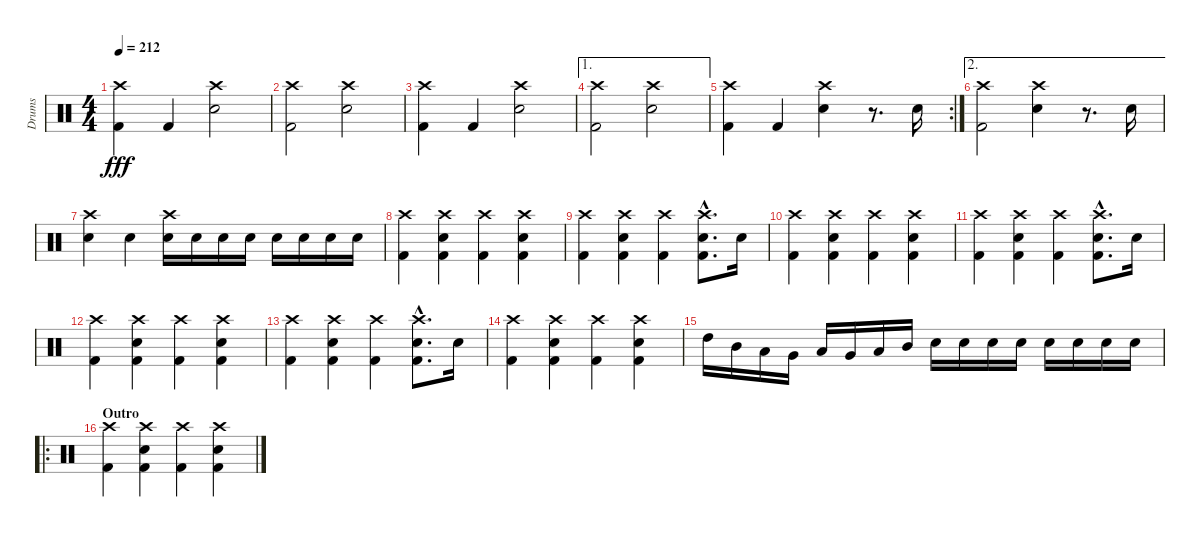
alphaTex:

\track ("Drums" "Drums") {instrument percussion}
\staff {score}
\articulation defaults
\ts (4 4)
\tempo 212
\clef neutral
\ks c
("Crash high (hit)" "Kick (hit) 2").4{dy fff} "Kick (hit) 2".4 ("Crash high (hit)" "Electric Snare (hit)").2 |
("Crash high (hit)" "Kick (hit) 2").2 ("Crash high (hit)" "Electric Snare (hit)").2 |
("Crash high (hit)" "Kick (hit) 2").4 "Kick (hit) 2".4 ("Crash high (hit)" "Electric Snare (hit)").2 |
\ae 1
("Crash high (hit)" "Kick (hit) 2").2 ("Crash high (hit)" "Electric Snare (hit)").2 |
\rc 2
("Crash high (hit)" "Kick (hit) 2").4 "Kick (hit) 2".4 ("Crash high (hit)" "Electric Snare (hit)").4 r.8{d} "Electric Snare (hit)".16 |
\ae 2
("Crash high (hit)" "Kick (hit) 2").2 ("Crash high (hit)" "Electric Snare (hit)").4 r.8{d} "Electric Snare (hit)".16 |
("Crash high (hit)" "Electric Snare (hit)").4 "Electric Snare (hit)".4 ("Crash high (hit)" "Electric Snare (hit)").16 "Electric Snare (hit)".16 "Electric Snare (hit)".16 "Electric Snare (hit)".16 "Electric Snare (hit)".16 "Electric Snare (hit)".16 "Electric Snare (hit)".16 "Electric Snare (hit)".16 |
("Crash high (hit)" "Kick (hit) 2").4 ("Crash high (hit)" "Electric Snare (hit)" "Kick (hit) 2").4 ("Crash high (hit)" "Kick (hit) 2").4 ("Crash high (hit)" "Electric Snare (hit)" "Kick (hit) 2").4 |
("Crash high (hit)" "Kick (hit) 2").4 ("Crash high (hit)" "Electric Snare (hit)" "Kick (hit) 2").4 ("Crash high (hit)" "Kick (hit) 2").4 ("Crash high (hit)"{hac} "Electric Snare (hit)"{hac} "Kick (hit) 2"{hac}).8{d} "Electric Snare (hit)".16 |
("Crash high (hit)" "Kick (hit) 2").4 ("Crash high (hit)" "Electric Snare (hit)" "Kick (hit) 2").4 ("Crash high (hit)" "Kick (hit) 2").4 ("Crash high (hit)" "Electric Snare (hit)" "Kick (hit) 2").4 |
("Crash high (hit)" "Kick (hit) 2").4 ("Crash high (hit)" "Electric Snare (hit)" "Kick (hit) 2").4 ("Crash high (hit)" "Kick (hit) 2").4 ("Crash high (hit)"{hac} "Electric Snare (hit)"{hac} "Kick (hit) 2"{hac}).8{d} "Electric Snare (hit)".16 |
("Crash high (hit)" "Kick (hit) 2").4 ("Crash high (hit)" "Electric Snare (hit)" "Kick (hit) 2").4 ("Crash high (hit)" "Kick (hit) 2").4 ("Crash high (hit)" "Electric Snare (hit)" "Kick (hit) 2").4 |
("Crash high (hit)" "Kick (hit) 2").4 ("Crash high (hit)" "Electric Snare (hit)" "Kick (hit) 2").4 ("Crash high (hit)" "Kick (hit) 2").4 ("Crash high (hit)"{hac} "Electric Snare (hit)"{hac} "Kick (hit) 2"{hac}).8{d} "Electric Snare (hit)".16 |
("Crash high (hit)" "Kick (hit) 2").4 ("Crash high (hit)" "Electric Snare (hit)" "Kick (hit) 2").4 ("Crash high (hit)" "Kick (hit) 2").4 ("Crash high (hit)" "Electric Snare (hit)" "Kick (hit) 2").4 |
"High Tom (hit)".16 "Mid Tom (hit)".16 "Low Tom (hit)".16 "Very Low Tom (hit)".16 "Low Floor Tom (hit)".16 "Very Low Tom (hit)".16 "Low Tom (hit)".16 "Mid Tom (hit)".16 "Electric Snare (hit)".16 "Electric Snare (hit)".16 "Electric Snare (hit)".16 "Electric Snare (hit)".16 "Electric Snare (hit)".16 "Electric Snare (hit)".16 "Electric Snare (hit)".16 "Electric Snare (hit)".16 |
\ro
\section ("" "Outro")
("Crash high (hit)" "Kick (hit) 2").4 ("Crash high (hit)" "Electric Snare (hit)" "Kick (hit) 2").4 ("Crash high (hit)" "Kick (hit) 2").4 ("Crash high (hit)" "Electric Snare (hit)" "Kick (hit) 2").4
